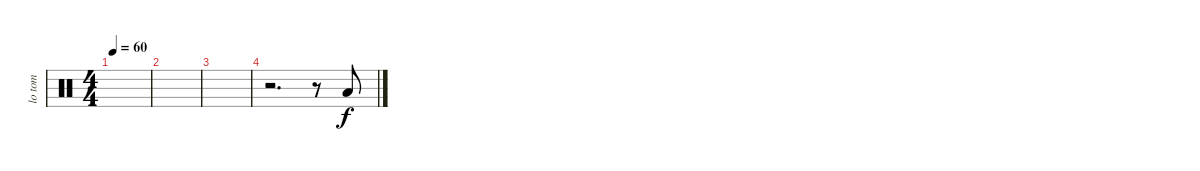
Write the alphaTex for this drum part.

\track ("lo tom" "lo tom") {instrument percussion}
\staff {score}
\articulation defaults
\ts (4 4)
\tempo 60
\clef neutral
\ks c
|
|
|
r.2{d} r.8 "Low Tom (hit)".8
